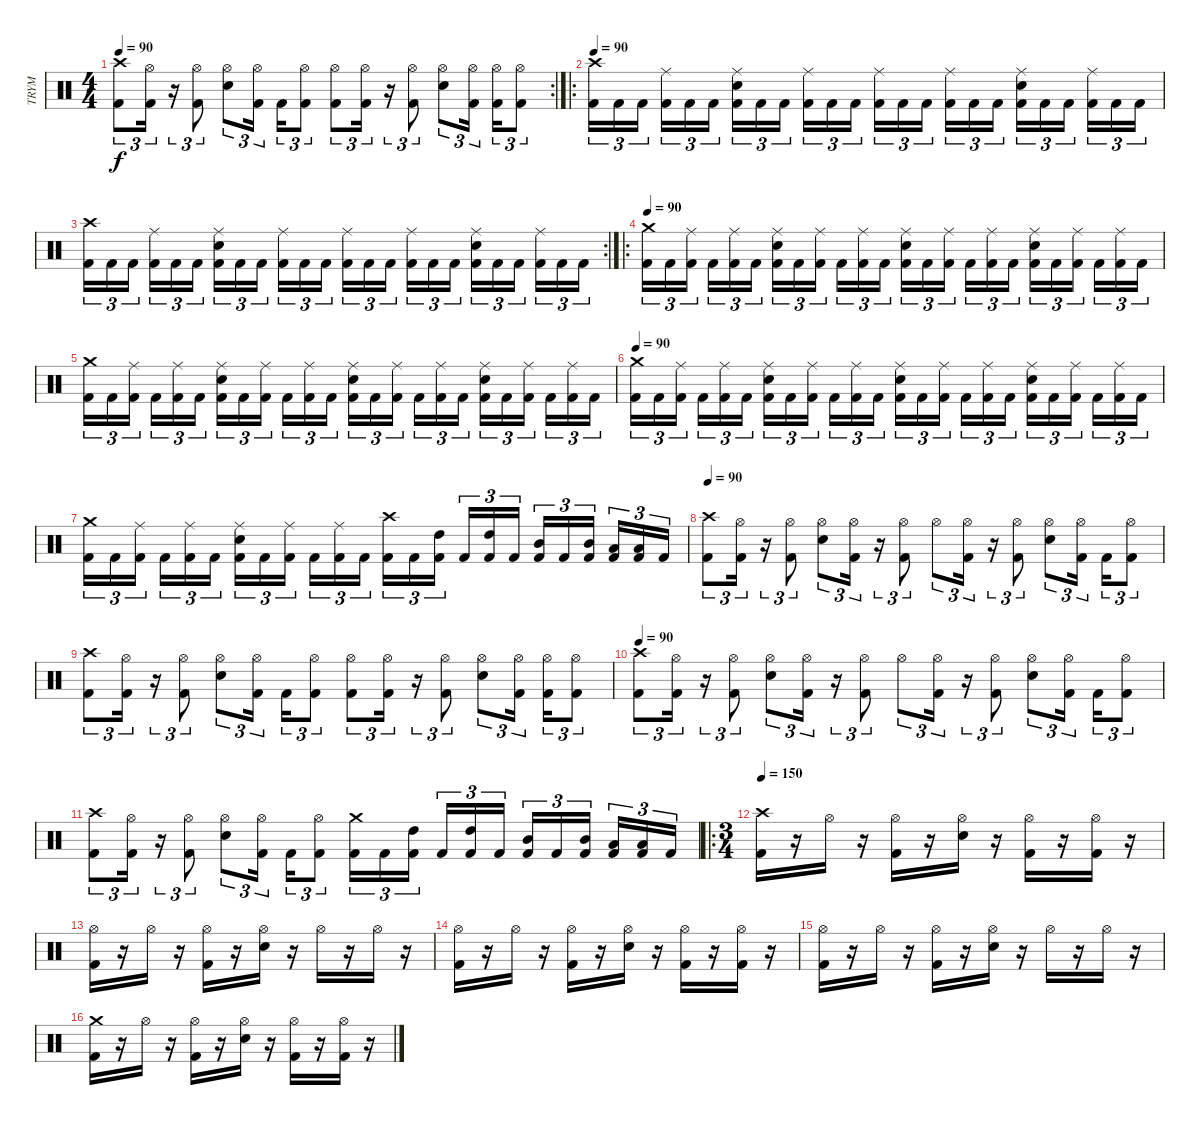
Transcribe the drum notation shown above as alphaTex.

\track ("TRYM" "TRYM") {instrument percussion}
\staff {score}
\articulation defaults
\rc 2
\ts (4 4)
\tempo 90
\clef neutral
\ks c
("Kick (hit) 2" "Crash high (hit)").8{tu (3 2) dy f} ("Kick (hit) 2" "Hi-Hat (open)").16{tu (3 2)} r.16{tu (3 2)} ("Kick (hit) 2" "Hi-Hat (open)").8{tu (3 2)} ("Hi-Hat (open)" "Electric Snare (hit)").8{tu (3 2)} ("Kick (hit) 2" "Hi-Hat (open)").16{tu (3 2)} "Kick (hit) 2".16{tu (3 2)} ("Kick (hit) 2" "Hi-Hat (open)").8{tu (3 2)} ("Kick (hit) 2" "Hi-Hat (open)").8{tu (3 2)} ("Kick (hit) 2" "Hi-Hat (open)").16{tu (3 2)} r.16{tu (3 2)} ("Kick (hit) 2" "Hi-Hat (open)").8{tu (3 2)} ("Hi-Hat (open)" "Electric Snare (hit)").8{tu (3 2)} ("Kick (hit) 2" "Hi-Hat (open)").16{tu (3 2)} ("Kick (hit) 2" "Hi-Hat (open)").16{tu (3 2)} ("Kick (hit) 2" "Hi-Hat (open)").8{tu (3 2)} |
\ro
\tempo 90
("Kick (hit) 2" "Crash high (hit)").16{tu (3 2)} "Kick (hit) 2".16{tu (3 2)} "Kick (hit) 2".16{tu (3 2)} ("Kick (hit) 2" "Ride (middle)").16{tu (3 2)} "Kick (hit) 2".16{tu (3 2)} "Kick (hit) 2".16{tu (3 2)} ("Kick (hit) 2" "Ride (middle)" "Electric Snare (hit)").16{tu (3 2)} "Kick (hit) 2".16{tu (3 2)} "Kick (hit) 2".16{tu (3 2)} ("Kick (hit) 2" "Ride (middle)").16{tu (3 2)} "Kick (hit) 2".16{tu (3 2)} "Kick (hit) 2".16{tu (3 2)} ("Kick (hit) 2" "Ride (middle)").16{tu (3 2)} "Kick (hit) 2".16{tu (3 2)} "Kick (hit) 2".16{tu (3 2)} ("Kick (hit) 2" "Ride (middle)").16{tu (3 2)} "Kick (hit) 2".16{tu (3 2)} "Kick (hit) 2".16{tu (3 2)} ("Kick (hit) 2" "Ride (middle)" "Electric Snare (hit)").16{tu (3 2)} "Kick (hit) 2".16{tu (3 2)} "Kick (hit) 2".16{tu (3 2)} ("Kick (hit) 2" "Ride (middle)").16{tu (3 2)} "Kick (hit) 2".16{tu (3 2)} "Kick (hit) 2".16{tu (3 2)} |
\rc 2
("Kick (hit) 2" "Crash high (hit)").16{tu (3 2)} "Kick (hit) 2".16{tu (3 2)} "Kick (hit) 2".16{tu (3 2)} ("Kick (hit) 2" "Ride (middle)").16{tu (3 2)} "Kick (hit) 2".16{tu (3 2)} "Kick (hit) 2".16{tu (3 2)} ("Kick (hit) 2" "Ride (middle)" "Electric Snare (hit)").16{tu (3 2)} "Kick (hit) 2".16{tu (3 2)} "Kick (hit) 2".16{tu (3 2)} ("Kick (hit) 2" "Ride (middle)").16{tu (3 2)} "Kick (hit) 2".16{tu (3 2)} "Kick (hit) 2".16{tu (3 2)} ("Kick (hit) 2" "Ride (middle)").16{tu (3 2)} "Kick (hit) 2".16{tu (3 2)} "Kick (hit) 2".16{tu (3 2)} ("Kick (hit) 2" "Ride (middle)").16{tu (3 2)} "Kick (hit) 2".16{tu (3 2)} "Kick (hit) 2".16{tu (3 2)} ("Kick (hit) 2" "Ride (middle)" "Electric Snare (hit)").16{tu (3 2)} "Kick (hit) 2".16{tu (3 2)} "Kick (hit) 2".16{tu (3 2)} ("Kick (hit) 2" "Ride (middle)").16{tu (3 2)} "Kick (hit) 2".16{tu (3 2)} "Kick (hit) 2".16{tu (3 2)} |
\ro
\tempo 90
("Kick (hit) 2" "Crash medium (hit)").16{tu (3 2)} "Kick (hit) 2".16{tu (3 2)} ("Kick (hit) 2" "Ride (middle)").16{tu (3 2)} "Kick (hit) 2".16{tu (3 2)} ("Kick (hit) 2" "Ride (middle)").16{tu (3 2)} "Kick (hit) 2".16{tu (3 2)} ("Kick (hit) 2" "Ride (middle)" "Electric Snare (hit)").16{tu (3 2)} "Kick (hit) 2".16{tu (3 2)} ("Kick (hit) 2" "Ride (middle)").16{tu (3 2)} "Kick (hit) 2".16{tu (3 2)} ("Kick (hit) 2" "Ride (middle)").16{tu (3 2)} "Kick (hit) 2".16{tu (3 2)} ("Kick (hit) 2" "Ride (middle)" "Electric Snare (hit)").16{tu (3 2)} "Kick (hit) 2".16{tu (3 2)} ("Kick (hit) 2" "Ride (middle)").16{tu (3 2)} "Kick (hit) 2".16{tu (3 2)} ("Kick (hit) 2" "Ride (middle)").16{tu (3 2)} "Kick (hit) 2".16{tu (3 2)} ("Kick (hit) 2" "Ride (middle)" "Electric Snare (hit)").16{tu (3 2)} "Kick (hit) 2".16{tu (3 2)} ("Kick (hit) 2" "Ride (middle)").16{tu (3 2)} "Kick (hit) 2".16{tu (3 2)} ("Kick (hit) 2" "Ride (middle)").16{tu (3 2)} "Kick (hit) 2".16{tu (3 2)} |
("Kick (hit) 2" "Crash medium (hit)").16{tu (3 2)} "Kick (hit) 2".16{tu (3 2)} ("Kick (hit) 2" "Ride (middle)").16{tu (3 2)} "Kick (hit) 2".16{tu (3 2)} ("Kick (hit) 2" "Ride (middle)").16{tu (3 2)} "Kick (hit) 2".16{tu (3 2)} ("Kick (hit) 2" "Ride (middle)" "Electric Snare (hit)").16{tu (3 2)} "Kick (hit) 2".16{tu (3 2)} ("Kick (hit) 2" "Ride (middle)").16{tu (3 2)} "Kick (hit) 2".16{tu (3 2)} ("Kick (hit) 2" "Ride (middle)").16{tu (3 2)} "Kick (hit) 2".16{tu (3 2)} ("Kick (hit) 2" "Ride (middle)" "Electric Snare (hit)").16{tu (3 2)} "Kick (hit) 2".16{tu (3 2)} ("Kick (hit) 2" "Ride (middle)").16{tu (3 2)} "Kick (hit) 2".16{tu (3 2)} ("Kick (hit) 2" "Ride (middle)").16{tu (3 2)} "Kick (hit) 2".16{tu (3 2)} ("Kick (hit) 2" "Ride (middle)" "Electric Snare (hit)").16{tu (3 2)} "Kick (hit) 2".16{tu (3 2)} ("Kick (hit) 2" "Ride (middle)").16{tu (3 2)} "Kick (hit) 2".16{tu (3 2)} ("Kick (hit) 2" "Ride (middle)").16{tu (3 2)} "Kick (hit) 2".16{tu (3 2)} |
\tempo 90
("Kick (hit) 2" "Crash medium (hit)").16{tu (3 2)} "Kick (hit) 2".16{tu (3 2)} ("Kick (hit) 2" "Ride (middle)").16{tu (3 2)} "Kick (hit) 2".16{tu (3 2)} ("Kick (hit) 2" "Ride (middle)").16{tu (3 2)} "Kick (hit) 2".16{tu (3 2)} ("Kick (hit) 2" "Ride (middle)" "Electric Snare (hit)").16{tu (3 2)} "Kick (hit) 2".16{tu (3 2)} ("Kick (hit) 2" "Ride (middle)").16{tu (3 2)} "Kick (hit) 2".16{tu (3 2)} ("Kick (hit) 2" "Ride (middle)").16{tu (3 2)} "Kick (hit) 2".16{tu (3 2)} ("Kick (hit) 2" "Ride (middle)" "Electric Snare (hit)").16{tu (3 2)} "Kick (hit) 2".16{tu (3 2)} ("Kick (hit) 2" "Ride (middle)").16{tu (3 2)} "Kick (hit) 2".16{tu (3 2)} ("Kick (hit) 2" "Ride (middle)").16{tu (3 2)} "Kick (hit) 2".16{tu (3 2)} ("Kick (hit) 2" "Ride (middle)" "Electric Snare (hit)").16{tu (3 2)} "Kick (hit) 2".16{tu (3 2)} ("Kick (hit) 2" "Ride (middle)").16{tu (3 2)} "Kick (hit) 2".16{tu (3 2)} ("Kick (hit) 2" "Ride (middle)").16{tu (3 2)} "Kick (hit) 2".16{tu (3 2)} |
("Kick (hit) 2" "Crash medium (hit)").16{tu (3 2)} "Kick (hit) 2".16{tu (3 2)} ("Kick (hit) 2" "Ride (middle)").16{tu (3 2)} "Kick (hit) 2".16{tu (3 2)} ("Kick (hit) 2" "Ride (middle)").16{tu (3 2)} "Kick (hit) 2".16{tu (3 2)} ("Kick (hit) 2" "Ride (middle)" "Electric Snare (hit)").16{tu (3 2)} "Kick (hit) 2".16{tu (3 2)} ("Kick (hit) 2" "Ride (middle)").16{tu (3 2)} "Kick (hit) 2".16{tu (3 2)} ("Kick (hit) 2" "Ride (middle)").16{tu (3 2)} "Kick (hit) 2".16{tu (3 2)} ("Kick (hit) 2" "Crash high (hit)").16{tu (3 2)} "Kick (hit) 2".16{tu (3 2)} ("Kick (hit) 2" "High Tom (hit)").16{tu (3 2)} "Kick (hit) 2".16{tu (3 2)} ("Kick (hit) 2" "High Tom (hit)").16{tu (3 2)} "Kick (hit) 2".16{tu (3 2)} ("Kick (hit) 2" "Mid Tom (hit)").16{tu (3 2)} "Kick (hit) 2".16{tu (3 2)} ("Kick (hit) 2" "Mid Tom (hit)").16{tu (3 2)} ("Kick (hit) 2" "Low Tom (hit)").16{tu (3 2)} ("Kick (hit) 2" "Low Tom (hit)").16{tu (3 2)} "Kick (hit) 2".16{tu (3 2)} |
\tempo 90
("Kick (hit) 2" "Crash high (hit)").8{tu (3 2)} ("Kick (hit) 2" "Hi-Hat (open)").16{tu (3 2)} r.16{tu (3 2)} ("Kick (hit) 2" "Hi-Hat (open)").8{tu (3 2)} ("Hi-Hat (open)" "Electric Snare (hit)").8{tu (3 2)} ("Kick (hit) 2" "Hi-Hat (open)").16{tu (3 2)} r.16{tu (3 2)} ("Kick (hit) 2" "Hi-Hat (open)").8{tu (3 2)} "Hi-Hat (open)".8{tu (3 2)} ("Kick (hit) 2" "Hi-Hat (open)").16{tu (3 2)} r.16{tu (3 2)} ("Kick (hit) 2" "Hi-Hat (open)").8{tu (3 2)} ("Hi-Hat (open)" "Electric Snare (hit)").8{tu (3 2)} ("Kick (hit) 2" "Hi-Hat (open)").16{tu (3 2)} "Kick (hit) 2".16{tu (3 2)} ("Kick (hit) 2" "Hi-Hat (open)").8{tu (3 2)} |
("Kick (hit) 2" "Crash high (hit)").8{tu (3 2)} ("Kick (hit) 2" "Hi-Hat (open)").16{tu (3 2)} r.16{tu (3 2)} ("Kick (hit) 2" "Hi-Hat (open)").8{tu (3 2)} ("Hi-Hat (open)" "Electric Snare (hit)").8{tu (3 2)} ("Kick (hit) 2" "Hi-Hat (open)").16{tu (3 2)} "Kick (hit) 2".16{tu (3 2)} ("Kick (hit) 2" "Hi-Hat (open)").8{tu (3 2)} ("Kick (hit) 2" "Hi-Hat (open)").8{tu (3 2)} ("Kick (hit) 2" "Hi-Hat (open)").16{tu (3 2)} r.16{tu (3 2)} ("Kick (hit) 2" "Hi-Hat (open)").8{tu (3 2)} ("Hi-Hat (open)" "Electric Snare (hit)").8{tu (3 2)} ("Kick (hit) 2" "Hi-Hat (open)").16{tu (3 2)} ("Kick (hit) 2" "Hi-Hat (open)").16{tu (3 2)} ("Kick (hit) 2" "Hi-Hat (open)").8{tu (3 2)} |
\tempo 90
("Kick (hit) 2" "Crash high (hit)").8{tu (3 2)} ("Kick (hit) 2" "Hi-Hat (open)").16{tu (3 2)} r.16{tu (3 2)} ("Kick (hit) 2" "Hi-Hat (open)").8{tu (3 2)} ("Hi-Hat (open)" "Electric Snare (hit)").8{tu (3 2)} ("Kick (hit) 2" "Hi-Hat (open)").16{tu (3 2)} r.16{tu (3 2)} ("Kick (hit) 2" "Hi-Hat (open)").8{tu (3 2)} "Hi-Hat (open)".8{tu (3 2)} ("Kick (hit) 2" "Hi-Hat (open)").16{tu (3 2)} r.16{tu (3 2)} ("Kick (hit) 2" "Hi-Hat (open)").8{tu (3 2)} ("Hi-Hat (open)" "Electric Snare (hit)").8{tu (3 2)} ("Kick (hit) 2" "Hi-Hat (open)").16{tu (3 2)} "Kick (hit) 2".16{tu (3 2)} ("Kick (hit) 2" "Hi-Hat (open)").8{tu (3 2)} |
("Kick (hit) 2" "Crash high (hit)").8{tu (3 2)} ("Kick (hit) 2" "Hi-Hat (open)").16{tu (3 2)} r.16{tu (3 2)} ("Kick (hit) 2" "Hi-Hat (open)").8{tu (3 2)} ("Hi-Hat (open)" "Electric Snare (hit)").8{tu (3 2)} ("Kick (hit) 2" "Hi-Hat (open)").16{tu (3 2)} "Kick (hit) 2".16{tu (3 2)} ("Kick (hit) 2" "Hi-Hat (open)").8{tu (3 2)} ("Kick (hit) 2" "Crash medium (hit)").16{tu (3 2)} "Kick (hit) 2".16{tu (3 2)} ("Kick (hit) 2" "High Tom (hit)").16{tu (3 2)} "Kick (hit) 2".16{tu (3 2)} ("Kick (hit) 2" "High Tom (hit)").16{tu (3 2)} "Kick (hit) 2".16{tu (3 2)} ("Kick (hit) 2" "Mid Tom (hit)").16{tu (3 2)} "Kick (hit) 2".16{tu (3 2)} ("Kick (hit) 2" "Mid Tom (hit)").16{tu (3 2)} ("Kick (hit) 2" "Low Tom (hit)").16{tu (3 2)} ("Kick (hit) 2" "Low Tom (hit)").16{tu (3 2)} "Kick (hit) 2".16{tu (3 2)} |
\ro
\ts (3 4)
\tempo 150
("Kick (hit) 2" "Crash high (hit)").16 r.16 "Hi-Hat (open)".16 r.16 ("Kick (hit) 2" "Hi-Hat (open)").16 r.16 ("Hi-Hat (open)" "Electric Snare (hit)").16 r.16 ("Kick (hit) 2" "Hi-Hat (open)").16 r.16 ("Kick (hit) 2" "Hi-Hat (open)").16 r.16 |
("Kick (hit) 2" "Hi-Hat (open)").16 r.16 "Hi-Hat (open)".16 r.16 ("Kick (hit) 2" "Hi-Hat (open)").16 r.16 ("Hi-Hat (open)" "Electric Snare (hit)").16 r.16 "Hi-Hat (open)".16 r.16 "Hi-Hat (open)".16 r.16 |
("Kick (hit) 2" "Hi-Hat (open)").16 r.16 "Hi-Hat (open)".16 r.16 ("Kick (hit) 2" "Hi-Hat (open)").16 r.16 ("Hi-Hat (open)" "Electric Snare (hit)").16 r.16 ("Kick (hit) 2" "Hi-Hat (open)").16 r.16 ("Kick (hit) 2" "Hi-Hat (open)").16 r.16 |
("Kick (hit) 2" "Hi-Hat (open)").16 r.16 "Hi-Hat (open)".16 r.16 ("Kick (hit) 2" "Hi-Hat (open)").16 r.16 ("Hi-Hat (open)" "Electric Snare (hit)").16 r.16 "Hi-Hat (open)".16 r.16 "Hi-Hat (open)".16 r.16 |
("Kick (hit) 2" "Crash medium (hit)").16 r.16 "Hi-Hat (open)".16 r.16 ("Kick (hit) 2" "Hi-Hat (open)").16 r.16 ("Hi-Hat (open)" "Electric Snare (hit)").16 r.16 ("Kick (hit) 2" "Hi-Hat (open)").16 r.16 ("Kick (hit) 2" "Hi-Hat (open)").16 r.16
